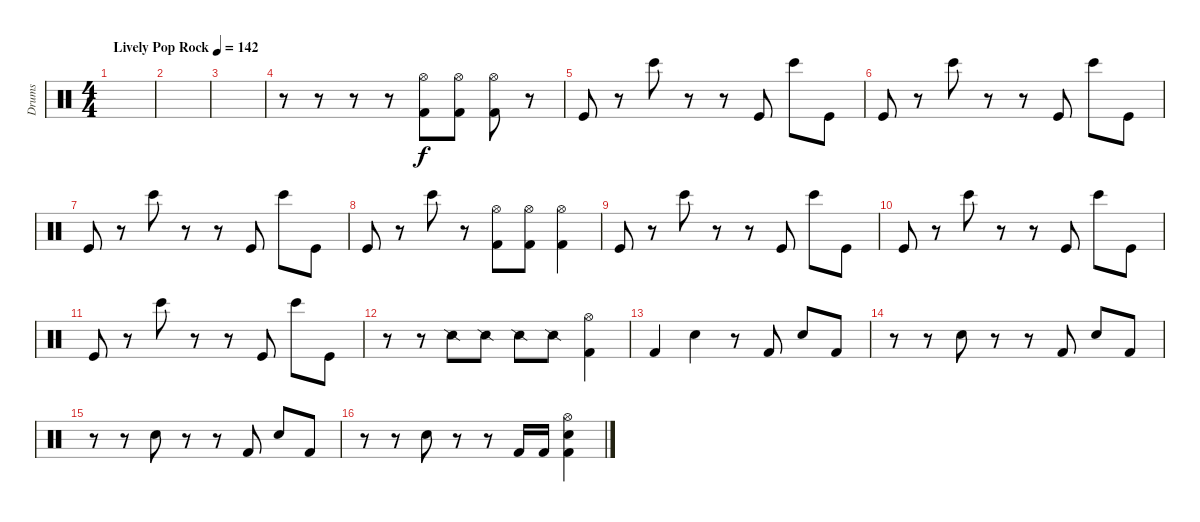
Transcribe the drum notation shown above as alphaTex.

\track ("Drums" "Drums") {instrument percussion}
\staff {score}
\articulation defaults
\ts (4 4)
\tempo (142 "Lively Pop Rock")
\clef neutral
\ks c
|
|
|
r.8 r.8 r.8 r.8 ("Hi-Hat (open)" "Kick (hit) 2").8 ("Hi-Hat (open)" "Kick (hit) 2").8 ("Hi-Hat (open)" "Kick (hit) 2").8 r.8 |
"Kick (hit)".8 r.8 "Bongo High (hit)".8 r.8 r.8 "Kick (hit)".8 "Bongo High (hit)".8 "Kick (hit)".8 |
"Kick (hit)".8 r.8 "Bongo High (hit)".8 r.8 r.8 "Kick (hit)".8 "Bongo High (hit)".8 "Kick (hit)".8 |
"Kick (hit)".8 r.8 "Bongo High (hit)".8 r.8 r.8 "Kick (hit)".8 "Bongo High (hit)".8 "Kick (hit)".8 |
"Kick (hit)".8 r.8 "Bongo High (hit)".8 r.8 ("Hi-Hat (open)" "Kick (hit) 2").8 ("Hi-Hat (open)" "Kick (hit) 2").8 ("Hi-Hat (open)" "Kick (hit) 2").4 |
"Kick (hit)".8 r.8 "Bongo High (hit)".8 r.8 r.8 "Kick (hit)".8 "Bongo High (hit)".8 "Kick (hit)".8 |
"Kick (hit)".8 r.8 "Bongo High (hit)".8 r.8 r.8 "Kick (hit)".8 "Bongo High (hit)".8 "Kick (hit)".8 |
"Kick (hit)".8 r.8 "Bongo High (hit)".8 r.8 r.8 "Kick (hit)".8 "Bongo High (hit)".8 "Kick (hit)".8 |
r.8 r.8 "Snare (side stick) 2".8 "Snare (side stick) 2".8 "Snare (side stick) 2".8 "Snare (side stick) 2".8 ("Hi-Hat (open)" "Kick (hit) 2").4 |
"Kick (hit) 2".4 "Snare (hit) 2".4 r.8 "Kick (hit) 2".8 "Snare (hit) 2".8 "Kick (hit) 2".8 |
r.8 r.8 "Snare (hit) 2".8 r.8 r.8 "Kick (hit) 2".8 "Snare (hit) 2".8 "Kick (hit) 2".8 |
r.8 r.8 "Snare (hit) 2".8 r.8 r.8 "Kick (hit) 2".8 "Snare (hit) 2".8 "Kick (hit) 2".8 |
r.8 r.8 "Snare (hit) 2".8 r.8 r.8 "Kick (hit) 2".16 "Kick (hit) 2".16 ("Hi-Hat (open)" "Snare (hit) 2" "Kick (hit) 2").4
